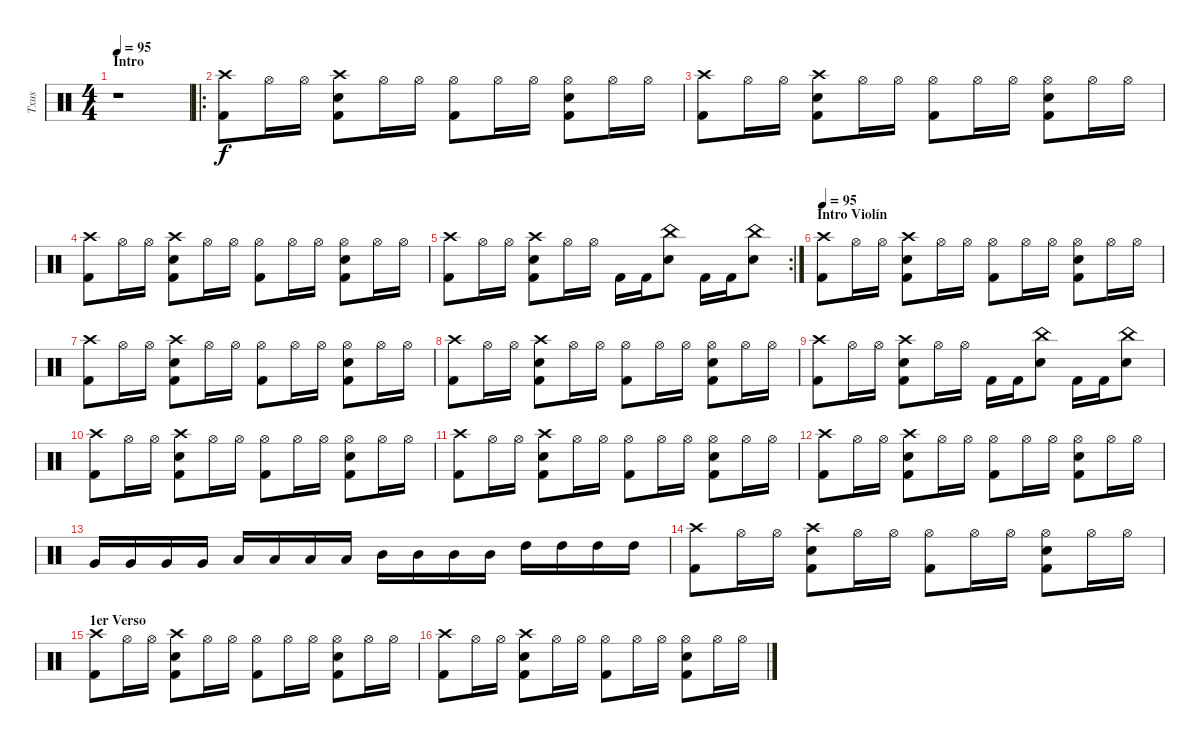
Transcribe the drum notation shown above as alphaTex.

\track ("Txus" "Txus") {instrument percussion}
\staff {score}
\articulation defaults
\ts (4 4)
\section ("" "Intro")
\tempo 95
\clef neutral
\ks c
r.1{dy f} |
\ro
("Kick (hit) 2" "Crash high (hit)").8 "Hi-Hat (open)".16 "Hi-Hat (open)".16 ("Kick (hit) 2" "Crash high (hit)" "Snare (hit) 2").8 "Hi-Hat (open)".16 "Hi-Hat (open)".16 ("Kick (hit) 2" "Hi-Hat (open)").8 "Hi-Hat (open)".16 "Hi-Hat (open)".16 ("Kick (hit) 2" "Hi-Hat (open)" "Snare (hit) 2").8 "Hi-Hat (open)".16 "Hi-Hat (open)".16 |
("Kick (hit) 2" "Crash high (hit)").8 "Hi-Hat (open)".16 "Hi-Hat (open)".16 ("Kick (hit) 2" "Crash high (hit)" "Snare (hit) 2").8 "Hi-Hat (open)".16 "Hi-Hat (open)".16 ("Kick (hit) 2" "Hi-Hat (open)").8 "Hi-Hat (open)".16 "Hi-Hat (open)".16 ("Kick (hit) 2" "Hi-Hat (open)" "Snare (hit) 2").8 "Hi-Hat (open)".16 "Hi-Hat (open)".16 |
("Kick (hit) 2" "Crash high (hit)").8 "Hi-Hat (open)".16 "Hi-Hat (open)".16 ("Kick (hit) 2" "Crash high (hit)" "Snare (hit) 2").8 "Hi-Hat (open)".16 "Hi-Hat (open)".16 ("Kick (hit) 2" "Hi-Hat (open)").8 "Hi-Hat (open)".16 "Hi-Hat (open)".16 ("Kick (hit) 2" "Hi-Hat (open)" "Snare (hit) 2").8 "Hi-Hat (open)".16 "Hi-Hat (open)".16 |
\rc 2
("Kick (hit) 2" "Crash high (hit)").8 "Hi-Hat (open)".16 "Hi-Hat (open)".16 ("Kick (hit) 2" "Crash high (hit)" "Snare (hit) 2").8 "Hi-Hat (open)".16 "Hi-Hat (open)".16 "Kick (hit) 2".16 "Kick (hit) 2".16 ("China (hit)" "Snare (hit) 2").8 "Kick (hit) 2".16 "Kick (hit) 2".16 ("China (hit)" "Snare (hit) 2").8 |
\section ("" "Intro Violín")
\tempo 95
("Kick (hit) 2" "Crash high (hit)").8 "Hi-Hat (open)".16 "Hi-Hat (open)".16 ("Kick (hit) 2" "Crash high (hit)" "Snare (hit) 2").8 "Hi-Hat (open)".16 "Hi-Hat (open)".16 ("Kick (hit) 2" "Hi-Hat (open)").8 "Hi-Hat (open)".16 "Hi-Hat (open)".16 ("Kick (hit) 2" "Hi-Hat (open)" "Snare (hit) 2").8 "Hi-Hat (open)".16 "Hi-Hat (open)".16 |
("Kick (hit) 2" "Crash high (hit)").8 "Hi-Hat (open)".16 "Hi-Hat (open)".16 ("Kick (hit) 2" "Crash high (hit)" "Snare (hit) 2").8 "Hi-Hat (open)".16 "Hi-Hat (open)".16 ("Kick (hit) 2" "Hi-Hat (open)").8 "Hi-Hat (open)".16 "Hi-Hat (open)".16 ("Kick (hit) 2" "Hi-Hat (open)" "Snare (hit) 2").8 "Hi-Hat (open)".16 "Hi-Hat (open)".16 |
("Kick (hit) 2" "Crash high (hit)").8 "Hi-Hat (open)".16 "Hi-Hat (open)".16 ("Kick (hit) 2" "Crash high (hit)" "Snare (hit) 2").8 "Hi-Hat (open)".16 "Hi-Hat (open)".16 ("Kick (hit) 2" "Hi-Hat (open)").8 "Hi-Hat (open)".16 "Hi-Hat (open)".16 ("Kick (hit) 2" "Hi-Hat (open)" "Snare (hit) 2").8 "Hi-Hat (open)".16 "Hi-Hat (open)".16 |
("Kick (hit) 2" "Crash high (hit)").8 "Hi-Hat (open)".16 "Hi-Hat (open)".16 ("Kick (hit) 2" "Crash high (hit)" "Snare (hit) 2").8 "Hi-Hat (open)".16 "Hi-Hat (open)".16 "Kick (hit) 2".16 "Kick (hit) 2".16 ("China (hit)" "Snare (hit) 2").8 "Kick (hit) 2".16 "Kick (hit) 2".16 ("China (hit)" "Snare (hit) 2").8 |
("Kick (hit) 2" "Crash high (hit)").8 "Hi-Hat (open)".16 "Hi-Hat (open)".16 ("Kick (hit) 2" "Crash high (hit)" "Snare (hit) 2").8 "Hi-Hat (open)".16 "Hi-Hat (open)".16 ("Kick (hit) 2" "Hi-Hat (open)").8 "Hi-Hat (open)".16 "Hi-Hat (open)".16 ("Kick (hit) 2" "Hi-Hat (open)" "Snare (hit) 2").8 "Hi-Hat (open)".16 "Hi-Hat (open)".16 |
("Kick (hit) 2" "Crash high (hit)").8 "Hi-Hat (open)".16 "Hi-Hat (open)".16 ("Kick (hit) 2" "Crash high (hit)" "Snare (hit) 2").8 "Hi-Hat (open)".16 "Hi-Hat (open)".16 ("Kick (hit) 2" "Hi-Hat (open)").8 "Hi-Hat (open)".16 "Hi-Hat (open)".16 ("Kick (hit) 2" "Hi-Hat (open)" "Snare (hit) 2").8 "Hi-Hat (open)".16 "Hi-Hat (open)".16 |
("Kick (hit) 2" "Crash high (hit)").8 "Hi-Hat (open)".16 "Hi-Hat (open)".16 ("Kick (hit) 2" "Crash high (hit)" "Snare (hit) 2").8 "Hi-Hat (open)".16 "Hi-Hat (open)".16 ("Kick (hit) 2" "Hi-Hat (open)").8 "Hi-Hat (open)".16 "Hi-Hat (open)".16 ("Kick (hit) 2" "Hi-Hat (open)" "Snare (hit) 2").8 "Hi-Hat (open)".16 "Hi-Hat (open)".16 |
"Very Low Tom (hit)".16{volume 14 balance 16} "Very Low Tom (hit)".16 "Very Low Tom (hit)".16 "Very Low Tom (hit)".16 "Low Tom (hit)".16 "Low Tom (hit)".16 "Low Tom (hit)".16 "Low Tom (hit)".16 "Mid Tom (hit)".16 "Mid Tom (hit)".16 "Mid Tom (hit)".16 "Mid Tom (hit)".16 "High Tom (hit)".16 "High Tom (hit)".16 "High Tom (hit)".16 "High Tom (hit)".16 |
("Kick (hit) 2" "Crash high (hit)").8{volume 9 balance 8} "Hi-Hat (open)".16 "Hi-Hat (open)".16 ("Kick (hit) 2" "Crash high (hit)" "Snare (hit) 2").8 "Hi-Hat (open)".16 "Hi-Hat (open)".16 ("Kick (hit) 2" "Hi-Hat (open)").8 "Hi-Hat (open)".16 "Hi-Hat (open)".16 ("Kick (hit) 2" "Hi-Hat (open)" "Snare (hit) 2").8 "Hi-Hat (open)".16 "Hi-Hat (open)".16 |
\section ("" "1er Verso")
("Kick (hit) 2" "Crash high (hit)").8 "Hi-Hat (open)".16 "Hi-Hat (open)".16 ("Kick (hit) 2" "Crash high (hit)" "Snare (hit) 2").8 "Hi-Hat (open)".16 "Hi-Hat (open)".16 ("Kick (hit) 2" "Hi-Hat (open)").8 "Hi-Hat (open)".16 "Hi-Hat (open)".16 ("Kick (hit) 2" "Hi-Hat (open)" "Snare (hit) 2").8 "Hi-Hat (open)".16 "Hi-Hat (open)".16 |
("Kick (hit) 2" "Crash high (hit)").8 "Hi-Hat (open)".16 "Hi-Hat (open)".16 ("Kick (hit) 2" "Crash high (hit)" "Snare (hit) 2").8 "Hi-Hat (open)".16 "Hi-Hat (open)".16 ("Kick (hit) 2" "Hi-Hat (open)").8 "Hi-Hat (open)".16 "Hi-Hat (open)".16 ("Kick (hit) 2" "Hi-Hat (open)" "Snare (hit) 2").8 "Hi-Hat (open)".16 "Hi-Hat (open)".16
